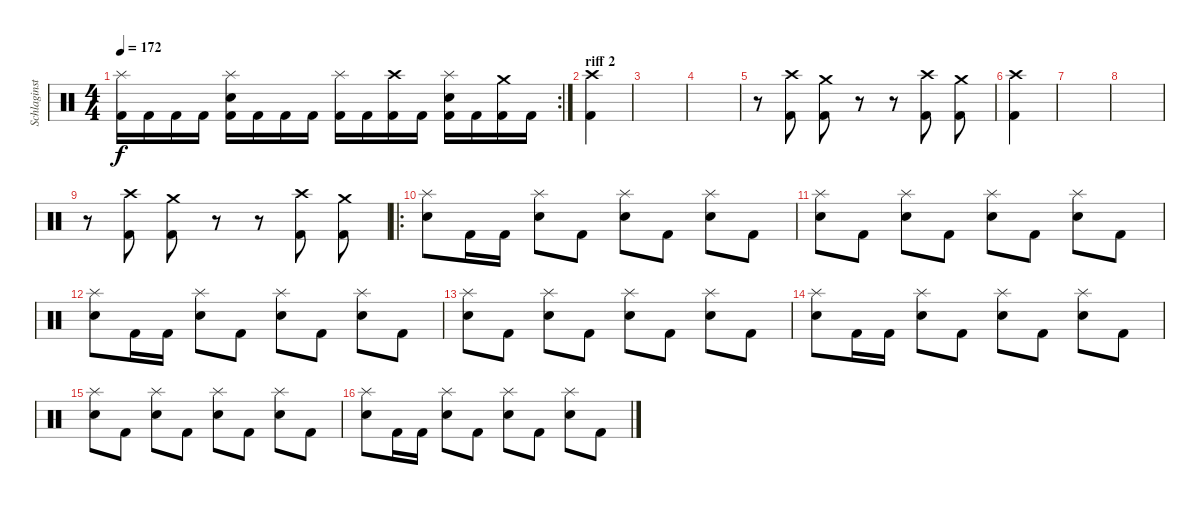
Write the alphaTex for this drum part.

\track ("Schlaginstrumente - Auswahl" "Schlaginst") {instrument percussion}
\staff {score}
\articulation defaults
\rc 2
\ts (4 4)
\tempo 172
\clef neutral
\ks c
("Splash (hit)" "Kick (hit) 2").16{dy f} "Kick (hit) 2".16 "Kick (hit) 2".16 "Kick (hit) 2".16 ("Electric Snare (hit)" "Splash (hit)" "Kick (hit) 2").16 "Kick (hit) 2".16 "Kick (hit) 2".16 "Kick (hit) 2".16 ("Splash (hit)" "Kick (hit) 2").16 "Kick (hit) 2".16 ("Crash high (hit)" "Kick (hit) 2").16 "Kick (hit) 2".16 ("Electric Snare (hit)" "Splash (hit)" "Kick (hit) 2").16 "Kick (hit) 2".16 ("Crash medium (hit)" "Kick (hit) 2").16 "Kick (hit) 2".16 |
\section ("" "riff 2")
("Crash high (hit)" "Kick (hit) 2").4 |
|
|
r.8 ("Crash high (hit)" "Kick (hit) 2").8 ("Crash medium (hit)" "Kick (hit) 2").8 r.8 r.8 ("Crash high (hit)" "Kick (hit) 2").8 ("Crash medium (hit)" "Kick (hit) 2").8 |
("Crash high (hit)" "Kick (hit) 2").4 |
|
|
r.8 ("Crash high (hit)" "Kick (hit) 2").8 ("Crash medium (hit)" "Kick (hit) 2").8 r.8 r.8 ("Crash high (hit)" "Kick (hit) 2").8 ("Crash medium (hit)" "Kick (hit) 2").8 |
\ro
("Electric Snare (hit)" "Splash (hit)").8 "Kick (hit) 2".16 "Kick (hit) 2".16 ("Electric Snare (hit)" "Splash (hit)").8 "Kick (hit) 2".8 ("Electric Snare (hit)" "Splash (hit)").8 "Kick (hit) 2".8 ("Electric Snare (hit)" "Splash (hit)").8 "Kick (hit) 2".8 |
("Electric Snare (hit)" "Splash (hit)").8 "Kick (hit) 2".8 ("Electric Snare (hit)" "Splash (hit)").8 "Kick (hit) 2".8 ("Electric Snare (hit)" "Splash (hit)").8 "Kick (hit) 2".8 ("Electric Snare (hit)" "Splash (hit)").8 "Kick (hit) 2".8 |
("Electric Snare (hit)" "Splash (hit)").8 "Kick (hit) 2".16 "Kick (hit) 2".16 ("Electric Snare (hit)" "Splash (hit)").8 "Kick (hit) 2".8 ("Electric Snare (hit)" "Splash (hit)").8 "Kick (hit) 2".8 ("Electric Snare (hit)" "Splash (hit)").8 "Kick (hit) 2".8 |
("Electric Snare (hit)" "Splash (hit)").8 "Kick (hit) 2".8 ("Electric Snare (hit)" "Splash (hit)").8 "Kick (hit) 2".8 ("Electric Snare (hit)" "Splash (hit)").8 "Kick (hit) 2".8 ("Electric Snare (hit)" "Splash (hit)").8 "Kick (hit) 2".8 |
("Electric Snare (hit)" "Splash (hit)").8 "Kick (hit) 2".16 "Kick (hit) 2".16 ("Electric Snare (hit)" "Splash (hit)").8 "Kick (hit) 2".8 ("Electric Snare (hit)" "Splash (hit)").8 "Kick (hit) 2".8 ("Electric Snare (hit)" "Splash (hit)").8 "Kick (hit) 2".8 |
("Electric Snare (hit)" "Splash (hit)").8 "Kick (hit) 2".8 ("Electric Snare (hit)" "Splash (hit)").8 "Kick (hit) 2".8 ("Electric Snare (hit)" "Splash (hit)").8 "Kick (hit) 2".8 ("Electric Snare (hit)" "Splash (hit)").8 "Kick (hit) 2".8 |
("Electric Snare (hit)" "Splash (hit)").8 "Kick (hit) 2".16 "Kick (hit) 2".16 ("Electric Snare (hit)" "Splash (hit)").8 "Kick (hit) 2".8 ("Electric Snare (hit)" "Splash (hit)").8 "Kick (hit) 2".8 ("Electric Snare (hit)" "Splash (hit)").8 "Kick (hit) 2".8
